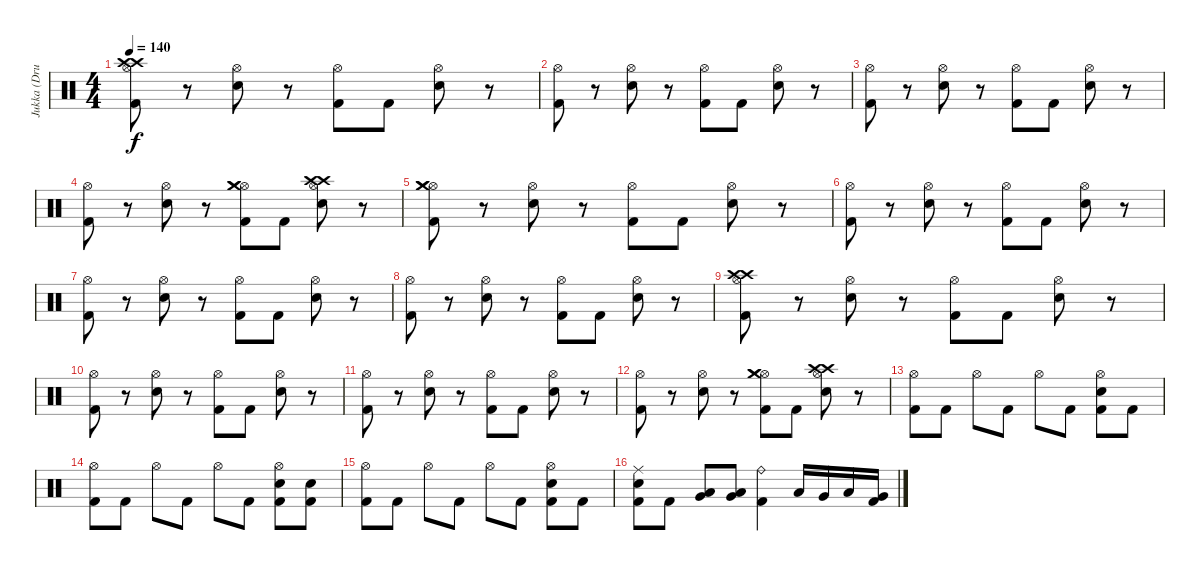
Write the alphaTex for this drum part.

\track ("Jukka (Drums)" "Jukka (Dru") {instrument percussion}
\staff {score}
\articulation defaults
\ts (4 4)
\tempo 140
\clef neutral
\ks c
("Hi-Hat (open)" "Crash high (hit)" "Crash high (hit)" "Kick (hit) 2").8{dy f} r.8 ("Hi-Hat (open)" "Snare (hit) 2").8 r.8 ("Hi-Hat (open)" "Kick (hit) 2").8 "Kick (hit) 2".8 ("Hi-Hat (open)" "Snare (hit) 2").8 r.8 |
("Hi-Hat (open)" "Kick (hit) 2").8 r.8 ("Hi-Hat (open)" "Snare (hit) 2").8 r.8 ("Hi-Hat (open)" "Kick (hit) 2").8 "Kick (hit) 2".8 ("Hi-Hat (open)" "Snare (hit) 2").8 r.8 |
("Hi-Hat (open)" "Kick (hit) 2").8 r.8 ("Hi-Hat (open)" "Snare (hit) 2").8 r.8 ("Hi-Hat (open)" "Kick (hit) 2").8 "Kick (hit) 2".8 ("Hi-Hat (open)" "Snare (hit) 2").8 r.8 |
("Hi-Hat (open)" "Kick (hit) 2").8 r.8 ("Hi-Hat (open)" "Snare (hit) 2").8 r.8 ("Hi-Hat (open)" "Crash medium (hit)" "Crash medium (hit)" "Kick (hit) 2").8 "Kick (hit) 2".8 ("Hi-Hat (open)" "Crash high (hit)" "Crash high (hit)" "Snare (hit) 2").8 r.8 |
("Hi-Hat (open)" "Crash medium (hit)" "Crash medium (hit)" "Kick (hit) 2").8 r.8 ("Hi-Hat (open)" "Snare (hit) 2").8 r.8 ("Hi-Hat (open)" "Kick (hit) 2").8 "Kick (hit) 2".8 ("Hi-Hat (open)" "Snare (hit) 2").8 r.8 |
("Hi-Hat (open)" "Kick (hit) 2").8 r.8 ("Hi-Hat (open)" "Snare (hit) 2").8 r.8 ("Hi-Hat (open)" "Kick (hit) 2").8 "Kick (hit) 2".8 ("Hi-Hat (open)" "Snare (hit) 2").8 r.8 |
("Hi-Hat (open)" "Kick (hit) 2").8 r.8 ("Hi-Hat (open)" "Snare (hit) 2").8 r.8 ("Hi-Hat (open)" "Kick (hit) 2").8 "Kick (hit) 2".8 ("Hi-Hat (open)" "Snare (hit) 2").8 r.8 |
("Hi-Hat (open)" "Kick (hit) 2").8 r.8 ("Hi-Hat (open)" "Snare (hit) 2").8 r.8 ("Hi-Hat (open)" "Kick (hit) 2").8 "Kick (hit) 2".8 ("Hi-Hat (open)" "Snare (hit) 2").8 r.8 |
("Hi-Hat (open)" "Crash high (hit)" "Crash high (hit)" "Kick (hit) 2").8 r.8 ("Hi-Hat (open)" "Snare (hit) 2").8 r.8 ("Hi-Hat (open)" "Kick (hit) 2").8 "Kick (hit) 2".8 ("Hi-Hat (open)" "Snare (hit) 2").8 r.8 |
("Hi-Hat (open)" "Kick (hit) 2").8 r.8 ("Hi-Hat (open)" "Snare (hit) 2").8 r.8 ("Hi-Hat (open)" "Kick (hit) 2").8 "Kick (hit) 2".8 ("Hi-Hat (open)" "Snare (hit) 2").8 r.8 |
("Hi-Hat (open)" "Kick (hit) 2").8 r.8 ("Hi-Hat (open)" "Snare (hit) 2").8 r.8 ("Hi-Hat (open)" "Kick (hit) 2").8 "Kick (hit) 2".8 ("Hi-Hat (open)" "Snare (hit) 2").8 r.8 |
("Hi-Hat (open)" "Kick (hit) 2").8 r.8 ("Hi-Hat (open)" "Snare (hit) 2").8 r.8 ("Hi-Hat (open)" "Crash medium (hit)" "Crash medium (hit)" "Kick (hit) 2").8 "Kick (hit) 2".8 ("Hi-Hat (open)" "Crash high (hit)" "Crash high (hit)" "Snare (hit) 2").8 r.8 |
("Hi-Hat (open)" "Kick (hit) 2").8 "Kick (hit) 2".8 "Hi-Hat (open)".8 "Kick (hit) 2".8 "Hi-Hat (open)".8 "Kick (hit) 2".8 ("Hi-Hat (open)" "Snare (hit) 2" "Kick (hit) 2").8 "Kick (hit) 2".8 |
("Hi-Hat (open)" "Kick (hit) 2").8 "Kick (hit) 2".8 "Hi-Hat (open)".8 "Kick (hit) 2".8 "Hi-Hat (open)".8 "Kick (hit) 2".8 ("Hi-Hat (open)" "Snare (hit) 2" "Kick (hit) 2").8 ("Snare (hit) 2" "Kick (hit) 2").8 |
("Hi-Hat (open)" "Kick (hit) 2").8 "Kick (hit) 2".8 "Hi-Hat (open)".8 "Kick (hit) 2".8 "Hi-Hat (open)".8 "Kick (hit) 2".8 ("Hi-Hat (open)" "Snare (hit) 2" "Kick (hit) 2").8 "Kick (hit) 2".8 |
("Ride (middle)" "Snare (hit) 2" "Kick (hit) 2").8 "Kick (hit) 2".8 ("Very Low Tom (hit)" "Low Tom (hit)").8 ("Very Low Tom (hit)" "Low Tom (hit)").8 ("Ride (bell)" "Kick (hit) 2").4 "Low Tom (hit)".16 "Very Low Tom (hit)".16 "Low Floor Tom (hit)".16 ("Very Low Tom (hit)" "Kick (hit) 2").16
